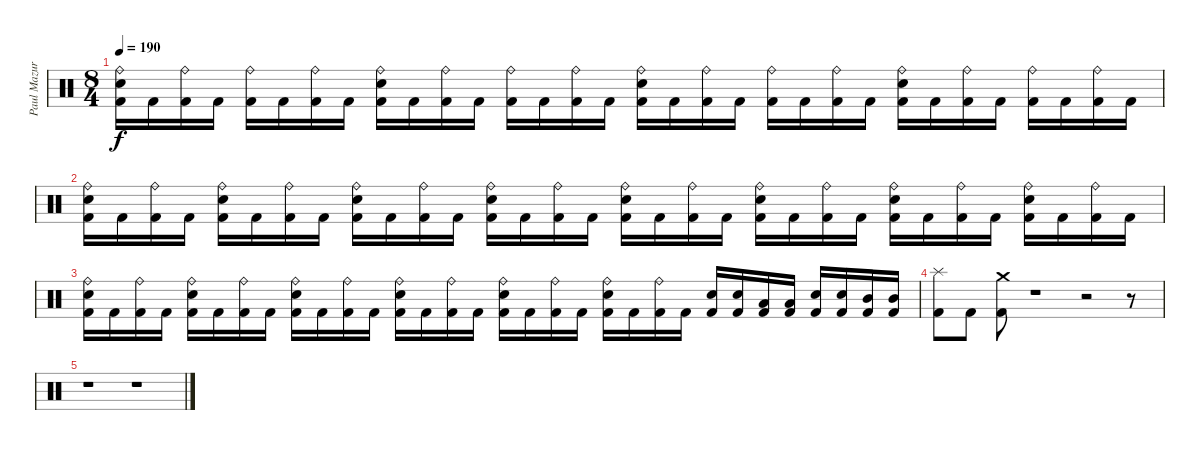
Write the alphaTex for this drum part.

\track ("Paul Mazurkiewicz" "Paul Mazur") {instrument percussion}
\staff {score}
\articulation defaults
\ts (8 4)
\tempo 190
\clef neutral
\ks c
("Ride (bell)" "Snare (hit) 2" "Kick (hit) 2").16{dy f} "Kick (hit) 2".16 ("Ride (bell)" "Kick (hit) 2").16 "Kick (hit) 2".16 ("Ride (bell)" "Kick (hit) 2").16 "Kick (hit) 2".16 ("Ride (bell)" "Kick (hit) 2").16 "Kick (hit) 2".16 ("Ride (bell)" "Snare (hit) 2" "Kick (hit) 2").16 "Kick (hit) 2".16 ("Ride (bell)" "Kick (hit) 2").16 "Kick (hit) 2".16 ("Ride (bell)" "Kick (hit) 2").16 "Kick (hit) 2".16 ("Ride (bell)" "Kick (hit) 2").16 "Kick (hit) 2".16 ("Ride (bell)" "Snare (hit) 2" "Kick (hit) 2").16 "Kick (hit) 2".16 ("Ride (bell)" "Kick (hit) 2").16 "Kick (hit) 2".16 ("Ride (bell)" "Kick (hit) 2").16 "Kick (hit) 2".16 ("Ride (bell)" "Kick (hit) 2").16 "Kick (hit) 2".16 ("Ride (bell)" "Snare (hit) 2" "Kick (hit) 2").16 "Kick (hit) 2".16 ("Ride (bell)" "Kick (hit) 2").16 "Kick (hit) 2".16 ("Ride (bell)" "Kick (hit) 2").16 "Kick (hit) 2".16 ("Ride (bell)" "Kick (hit) 2").16 "Kick (hit) 2".16 |
("Ride (bell)" "Snare (hit) 2" "Kick (hit) 2").16 "Kick (hit) 2".16 ("Ride (bell)" "Kick (hit) 2").16 "Kick (hit) 2".16 ("Ride (bell)" "Snare (hit) 2" "Kick (hit) 2").16 "Kick (hit) 2".16 ("Ride (bell)" "Kick (hit) 2").16 "Kick (hit) 2".16 ("Ride (bell)" "Snare (hit) 2" "Kick (hit) 2").16 "Kick (hit) 2".16 ("Ride (bell)" "Kick (hit) 2").16 "Kick (hit) 2".16 ("Ride (bell)" "Snare (hit) 2" "Kick (hit) 2").16 "Kick (hit) 2".16 ("Ride (bell)" "Kick (hit) 2").16 "Kick (hit) 2".16 ("Ride (bell)" "Snare (hit) 2" "Kick (hit) 2").16 "Kick (hit) 2".16 ("Ride (bell)" "Kick (hit) 2").16 "Kick (hit) 2".16 ("Ride (bell)" "Snare (hit) 2" "Kick (hit) 2").16 "Kick (hit) 2".16 ("Ride (bell)" "Kick (hit) 2").16 "Kick (hit) 2".16 ("Ride (bell)" "Snare (hit) 2" "Kick (hit) 2").16 "Kick (hit) 2".16 ("Ride (bell)" "Kick (hit) 2").16 "Kick (hit) 2".16 ("Ride (bell)" "Snare (hit) 2" "Kick (hit) 2").16 "Kick (hit) 2".16 ("Ride (bell)" "Kick (hit) 2").16 "Kick (hit) 2".16 |
("Ride (bell)" "Snare (hit) 2" "Kick (hit) 2").16 "Kick (hit) 2".16 ("Ride (bell)" "Kick (hit) 2").16 "Kick (hit) 2".16 ("Ride (bell)" "Snare (hit) 2" "Kick (hit) 2").16 "Kick (hit) 2".16 ("Ride (bell)" "Kick (hit) 2").16 "Kick (hit) 2".16 ("Ride (bell)" "Snare (hit) 2" "Kick (hit) 2").16 "Kick (hit) 2".16 ("Ride (bell)" "Kick (hit) 2").16 "Kick (hit) 2".16 ("Ride (bell)" "Snare (hit) 2" "Kick (hit) 2").16 "Kick (hit) 2".16 ("Ride (bell)" "Kick (hit) 2").16 "Kick (hit) 2".16 ("Ride (bell)" "Snare (hit) 2" "Kick (hit) 2").16 "Kick (hit) 2".16 ("Ride (bell)" "Kick (hit) 2").16 "Kick (hit) 2".16 ("Ride (bell)" "Snare (hit) 2" "Kick (hit) 2").16 "Kick (hit) 2".16 ("Ride (bell)" "Kick (hit) 2").16 "Kick (hit) 2".16 ("Snare (hit) 2" "Kick (hit) 2").16 ("Snare (hit) 2" "Kick (hit) 2").16 ("Low Tom (hit)" "Kick (hit) 2").16 ("Low Tom (hit)" "Kick (hit) 2").16 ("Snare (hit) 2" "Kick (hit) 2").16 ("Snare (hit) 2" "Kick (hit) 2").16 ("Mid Tom (hit)" "Kick (hit) 2").16 ("Mid Tom (hit)" "Kick (hit) 2").16 |
("Splash (hit)" "Kick (hit) 2").8 "Kick (hit) 2".8 ("Crash medium (hit)" "Kick (hit) 2").8 r.1 r.2 r.8 |
r.1 r.1
